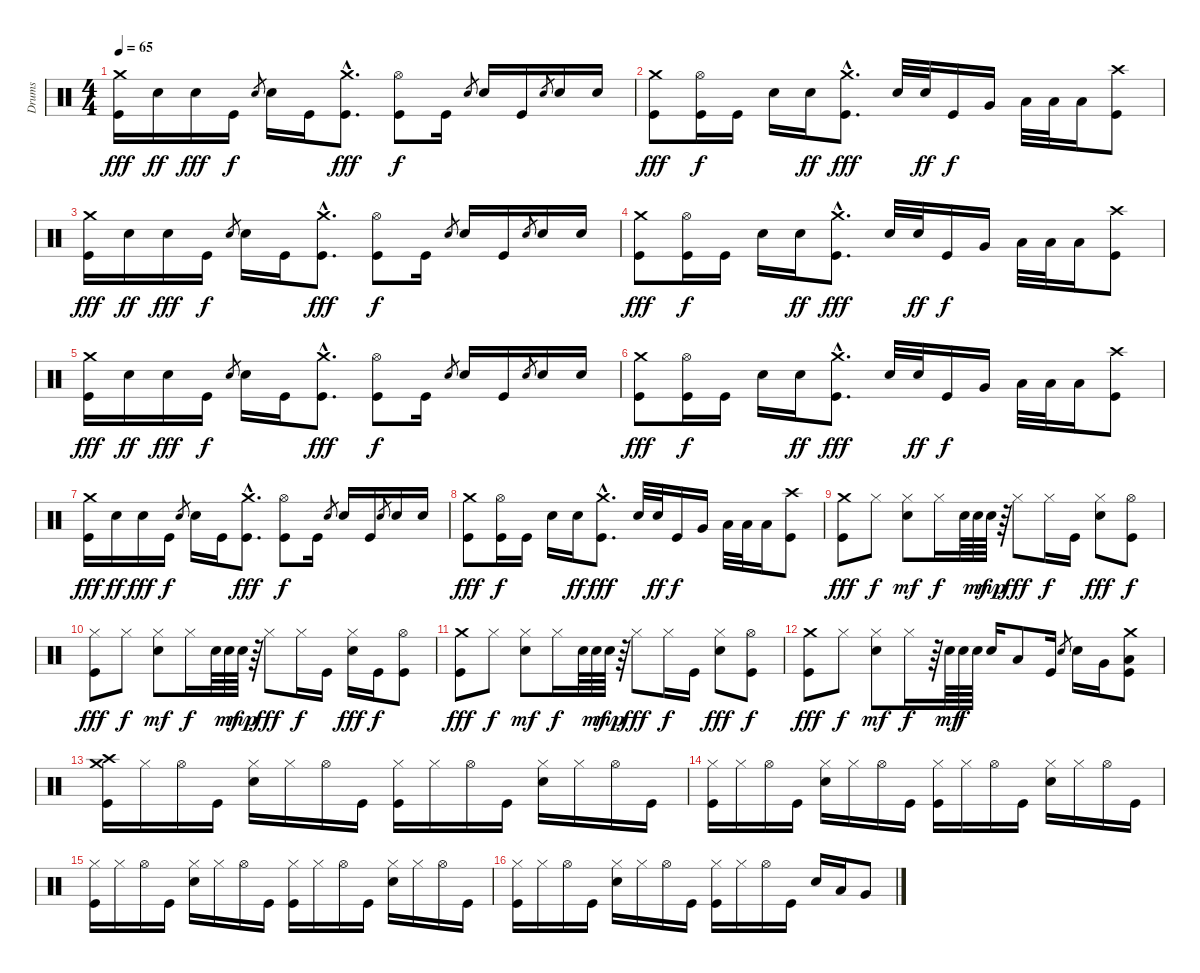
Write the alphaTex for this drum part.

\track ("Drums" "Drums") {instrument percussion}
\staff {score}
\articulation defaults
\ts (4 4)
\tempo 65
\clef neutral
\ks c
("Crash medium (hit)" "Kick (hit)").16{dy fff} "Snare (hit) 2".16{dy ff} "Snare (hit) 2".16{dy fff} "Kick (hit)".16{dy f} "Snare (hit) 2".8{gr} "Snare (hit) 2".16 "Kick (hit)".16 ("Crash medium (hit)"{hac} "Kick (hit)"{hac}).8{d dy fff} ("Hi-Hat (open)" "Kick (hit)").8{dy f} "Kick (hit)".16 "Snare (hit) 2".8{gr} "Snare (hit) 2".16 "Kick (hit)".16 "Snare (hit) 2".8{gr} "Snare (hit) 2".16 "Snare (hit) 2".16 |
("Crash medium (hit)" "Kick (hit)").8{dy fff} ("Hi-Hat (open)" "Kick (hit)").16{dy f} "Kick (hit)".16 "Snare (hit) 2".16 "Snare (hit) 2".16{dy ff} ("Crash medium (hit)"{hac} "Kick (hit)"{hac}).8{d dy fff} "Snare (hit) 2".32 "Snare (hit) 2".32{dy ff} "Kick (hit)".16{dy f} "Very Low Tom (hit)".16 "Low Floor Tom (hit)".32 "Low Floor Tom (hit)".32 "Low Floor Tom (hit)".16 ("Crash high (hit)" "Kick (hit)").8 |
("Crash medium (hit)" "Kick (hit)").16{dy fff} "Snare (hit) 2".16{dy ff} "Snare (hit) 2".16{dy fff} "Kick (hit)".16{dy f} "Snare (hit) 2".8{gr} "Snare (hit) 2".16 "Kick (hit)".16 ("Crash medium (hit)"{hac} "Kick (hit)"{hac}).8{d dy fff} ("Hi-Hat (open)" "Kick (hit)").8{dy f} "Kick (hit)".16 "Snare (hit) 2".8{gr} "Snare (hit) 2".16 "Kick (hit)".16 "Snare (hit) 2".8{gr} "Snare (hit) 2".16 "Snare (hit) 2".16 |
("Crash medium (hit)" "Kick (hit)").8{dy fff} ("Hi-Hat (open)" "Kick (hit)").16{dy f} "Kick (hit)".16 "Snare (hit) 2".16 "Snare (hit) 2".16{dy ff} ("Crash medium (hit)"{hac} "Kick (hit)"{hac}).8{d dy fff} "Snare (hit) 2".32 "Snare (hit) 2".32{dy ff} "Kick (hit)".16{dy f} "Very Low Tom (hit)".16 "Low Floor Tom (hit)".32 "Low Floor Tom (hit)".32 "Low Floor Tom (hit)".16 ("Crash high (hit)" "Kick (hit)").8 |
("Crash medium (hit)" "Kick (hit)").16{dy fff} "Snare (hit) 2".16{dy ff} "Snare (hit) 2".16{dy fff} "Kick (hit)".16{dy f} "Snare (hit) 2".8{gr} "Snare (hit) 2".16 "Kick (hit)".16 ("Crash medium (hit)"{hac} "Kick (hit)"{hac}).8{d dy fff} ("Hi-Hat (open)" "Kick (hit)").8{dy f} "Kick (hit)".16 "Snare (hit) 2".8{gr} "Snare (hit) 2".16 "Kick (hit)".16 "Snare (hit) 2".8{gr} "Snare (hit) 2".16 "Snare (hit) 2".16 |
("Crash medium (hit)" "Kick (hit)").8{dy fff} ("Hi-Hat (open)" "Kick (hit)").16{dy f} "Kick (hit)".16 "Snare (hit) 2".16 "Snare (hit) 2".16{dy ff} ("Crash medium (hit)"{hac} "Kick (hit)"{hac}).8{d dy fff} "Snare (hit) 2".32 "Snare (hit) 2".32{dy ff} "Kick (hit)".16{dy f} "Very Low Tom (hit)".16 "Low Floor Tom (hit)".32 "Low Floor Tom (hit)".32 "Low Floor Tom (hit)".16 ("Crash high (hit)" "Kick (hit)").8 |
("Crash medium (hit)" "Kick (hit)").16{dy fff} "Snare (hit) 2".16{dy ff} "Snare (hit) 2".16{dy fff} "Kick (hit)".16{dy f} "Snare (hit) 2".8{gr} "Snare (hit) 2".16 "Kick (hit)".16 ("Crash medium (hit)"{hac} "Kick (hit)"{hac}).8{d dy fff} ("Hi-Hat (open)" "Kick (hit)").8{dy f} "Kick (hit)".16 "Snare (hit) 2".8{gr} "Snare (hit) 2".16 "Kick (hit)".16 "Snare (hit) 2".8{gr} "Snare (hit) 2".16 "Snare (hit) 2".16 |
("Crash medium (hit)" "Kick (hit)").8{dy fff} ("Hi-Hat (open)" "Kick (hit)").16{dy f} "Kick (hit)".16 "Snare (hit) 2".16 "Snare (hit) 2".16{dy ff} ("Crash medium (hit)"{hac} "Kick (hit)"{hac}).8{d dy fff} "Snare (hit) 2".32 "Snare (hit) 2".32{dy ff} "Kick (hit)".16{dy f} "Very Low Tom (hit)".16 "Low Floor Tom (hit)".32 "Low Floor Tom (hit)".32 "Low Floor Tom (hit)".16 ("Crash high (hit)" "Kick (hit)").8 |
("Crash medium (hit)" "Kick (hit)").8{dy fff} "Hi-Hat (closed)".8{dy f} ("Hi-Hat (closed)" "Snare (hit) 2").8{dy mf} "Hi-Hat (closed)".16{dy f} "Snare (hit) 2".64 "Snare (hit) 2".64{dy mf} "Snare (hit) 2".64{dy mp} r.64 "Hi-Hat (closed)".8{dy fff} "Hi-Hat (closed)".16{dy f} "Kick (hit)".16 ("Hi-Hat (closed)" "Snare (hit) 2").8{dy fff} ("Hi-Hat (open)" "Kick (hit)").8{dy f} |
("Hi-Hat (closed)" "Kick (hit)").8{dy fff} "Hi-Hat (closed)".8{dy f} ("Hi-Hat (closed)" "Snare (hit) 2").8{dy mf} "Hi-Hat (closed)".16{dy f} "Snare (hit) 2".64 "Snare (hit) 2".64{dy mf} "Snare (hit) 2".64{dy mp} r.64 "Hi-Hat (closed)".8{dy fff} "Hi-Hat (closed)".16{dy f} "Kick (hit)".16 ("Hi-Hat (closed)" "Snare (hit) 2").16{dy fff} "Kick (hit)".16{dy f} ("Hi-Hat (open)" "Kick (hit)").8 |
("Crash medium (hit)" "Kick (hit)").8{dy fff} "Hi-Hat (closed)".8{dy f} ("Hi-Hat (closed)" "Snare (hit) 2").8{dy mf} "Hi-Hat (closed)".16{dy f} "Snare (hit) 2".64 "Snare (hit) 2".64{dy mf} "Snare (hit) 2".64{dy mp} r.64 "Hi-Hat (closed)".8{dy fff} "Hi-Hat (closed)".16{dy f} "Kick (hit)".16 ("Hi-Hat (closed)" "Snare (hit) 2").8{dy fff} ("Hi-Hat (open)" "Kick (hit)").8{dy f} |
("Crash medium (hit)" "Kick (hit)").8{dy fff} "Hi-Hat (closed)".8{dy f} ("Hi-Hat (closed)" "Snare (hit) 2").8{dy mf} "Hi-Hat (closed)".16{dy f} r.64 "Snare (hit) 2".64{dy mf} "Snare (hit) 2".64{dy f} "Snare (hit) 2".64 "Snare (hit) 2".16 "Low Tom (hit)".8 "Kick (hit)".16 "Snare (hit) 2".8{gr} "Snare (hit) 2".16 "Very Low Tom (hit)".16 ("Crash medium (hit)" "Low Floor Tom (hit)" "Kick (hit)").8 |
("Crash medium (hit)" "Crash high (hit)" "Kick (hit)").16 "Hi-Hat (closed)".16 "Hi-Hat (open)".16 "Kick (hit)".16 ("Hi-Hat (closed)" "Snare (hit) 2").16 "Hi-Hat (closed)".16 "Hi-Hat (open)".16 "Kick (hit)".16 ("Hi-Hat (closed)" "Kick (hit)").16 "Hi-Hat (closed)".16 "Hi-Hat (open)".16 "Kick (hit)".16 ("Hi-Hat (closed)" "Snare (hit) 2").16 "Hi-Hat (closed)".16 "Hi-Hat (open)".16 "Kick (hit)".16 |
("Hi-Hat (closed)" "Kick (hit)").16 "Hi-Hat (closed)".16 "Hi-Hat (open)".16 "Kick (hit)".16 ("Hi-Hat (closed)" "Snare (hit) 2").16 "Hi-Hat (closed)".16 "Hi-Hat (open)".16 "Kick (hit)".16 ("Hi-Hat (closed)" "Kick (hit)").16 "Hi-Hat (closed)".16 "Hi-Hat (open)".16 "Kick (hit)".16 ("Hi-Hat (closed)" "Snare (hit) 2").16 "Hi-Hat (closed)".16 "Hi-Hat (open)".16 "Kick (hit)".16 |
("Hi-Hat (closed)" "Kick (hit)").16 "Hi-Hat (closed)".16 "Hi-Hat (open)".16 "Kick (hit)".16 ("Hi-Hat (closed)" "Snare (hit) 2").16 "Hi-Hat (closed)".16 "Hi-Hat (open)".16 "Kick (hit)".16 ("Hi-Hat (closed)" "Kick (hit)").16 "Hi-Hat (closed)".16 "Hi-Hat (open)".16 "Kick (hit)".16 ("Hi-Hat (closed)" "Snare (hit) 2").16 "Hi-Hat (closed)".16 "Hi-Hat (open)".16 "Kick (hit)".16 |
("Hi-Hat (closed)" "Kick (hit)").16 "Hi-Hat (closed)".16 "Hi-Hat (open)".16 "Kick (hit)".16 ("Hi-Hat (closed)" "Snare (hit) 2").16 "Hi-Hat (closed)".16 "Hi-Hat (open)".16 "Kick (hit)".16 ("Hi-Hat (closed)" "Kick (hit)").16 "Hi-Hat (closed)".16 "Hi-Hat (open)".16 "Kick (hit)".16 "Snare (hit) 2".16 "Low Tom (hit)".16 "Very Low Tom (hit)".8
